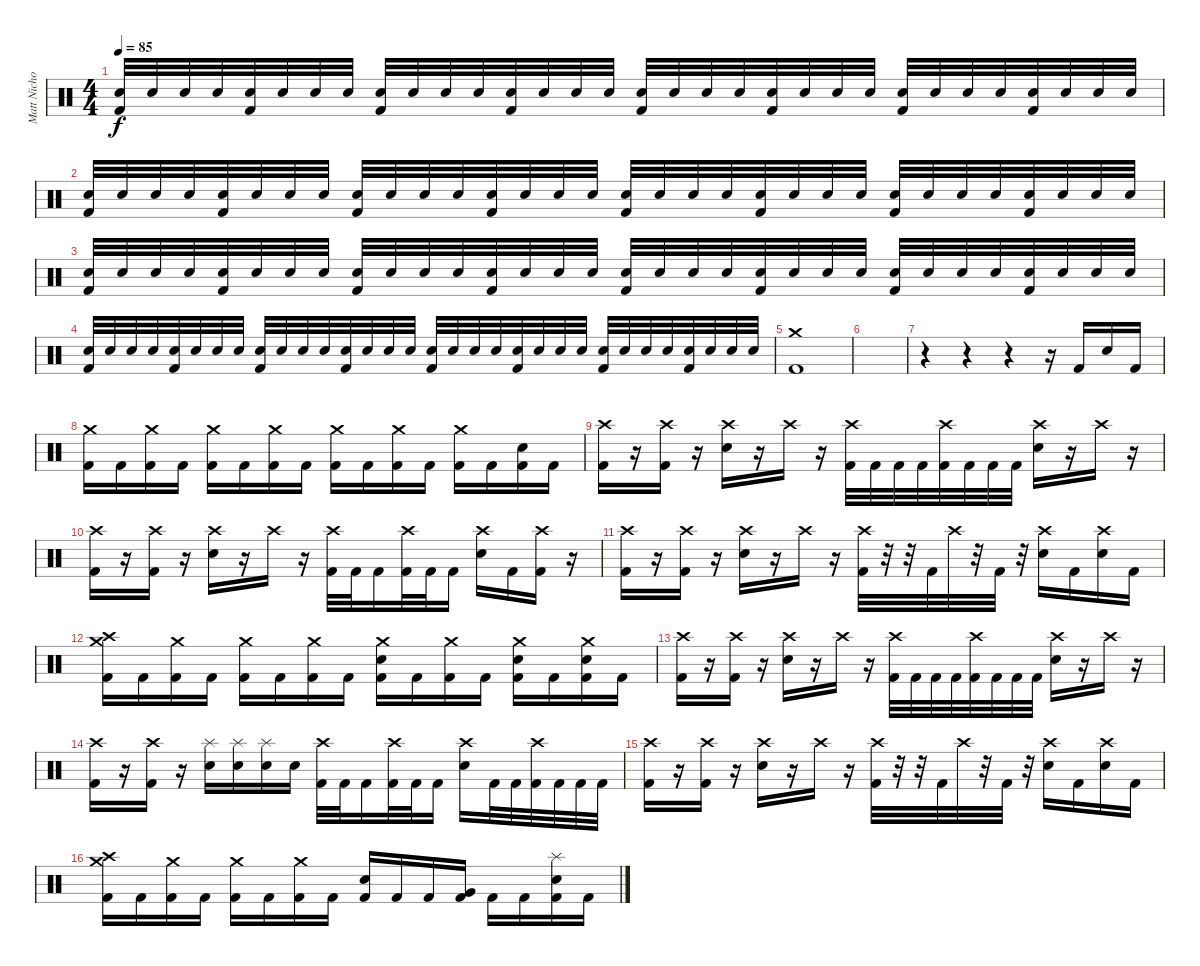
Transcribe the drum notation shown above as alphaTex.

\track ("Matt Nichols" "Matt Nicho") {instrument percussion}
\staff {score}
\articulation defaults
\ts (4 4)
\tempo 85
\clef neutral
\ks c
("Electric Snare (hit)" "Kick (hit) 2").32{dy f} "Electric Snare (hit)".32 "Electric Snare (hit)".32 "Electric Snare (hit)".32 ("Electric Snare (hit)" "Kick (hit) 2").32 "Electric Snare (hit)".32 "Electric Snare (hit)".32 "Electric Snare (hit)".32 ("Electric Snare (hit)" "Kick (hit) 2").32 "Electric Snare (hit)".32 "Electric Snare (hit)".32 "Electric Snare (hit)".32 ("Electric Snare (hit)" "Kick (hit) 2").32 "Electric Snare (hit)".32 "Electric Snare (hit)".32 "Electric Snare (hit)".32 ("Electric Snare (hit)" "Kick (hit) 2").32 "Electric Snare (hit)".32 "Electric Snare (hit)".32 "Electric Snare (hit)".32 ("Electric Snare (hit)" "Kick (hit) 2").32 "Electric Snare (hit)".32 "Electric Snare (hit)".32 "Electric Snare (hit)".32 ("Electric Snare (hit)" "Kick (hit) 2").32 "Electric Snare (hit)".32 "Electric Snare (hit)".32 "Electric Snare (hit)".32 ("Electric Snare (hit)" "Kick (hit) 2").32 "Electric Snare (hit)".32 "Electric Snare (hit)".32 "Electric Snare (hit)".32 |
("Electric Snare (hit)" "Kick (hit) 2").32 "Electric Snare (hit)".32 "Electric Snare (hit)".32 "Electric Snare (hit)".32 ("Electric Snare (hit)" "Kick (hit) 2").32 "Electric Snare (hit)".32 "Electric Snare (hit)".32 "Electric Snare (hit)".32 ("Electric Snare (hit)" "Kick (hit) 2").32 "Electric Snare (hit)".32 "Electric Snare (hit)".32 "Electric Snare (hit)".32 ("Electric Snare (hit)" "Kick (hit) 2").32 "Electric Snare (hit)".32 "Electric Snare (hit)".32 "Electric Snare (hit)".32 ("Electric Snare (hit)" "Kick (hit) 2").32 "Electric Snare (hit)".32 "Electric Snare (hit)".32 "Electric Snare (hit)".32 ("Electric Snare (hit)" "Kick (hit) 2").32 "Electric Snare (hit)".32 "Electric Snare (hit)".32 "Electric Snare (hit)".32 ("Electric Snare (hit)" "Kick (hit) 2").32 "Electric Snare (hit)".32 "Electric Snare (hit)".32 "Electric Snare (hit)".32 ("Electric Snare (hit)" "Kick (hit) 2").32 "Electric Snare (hit)".32 "Electric Snare (hit)".32 "Electric Snare (hit)".32 |
("Electric Snare (hit)" "Kick (hit) 2").32 "Electric Snare (hit)".32 "Electric Snare (hit)".32 "Electric Snare (hit)".32 ("Electric Snare (hit)" "Kick (hit) 2").32 "Electric Snare (hit)".32 "Electric Snare (hit)".32 "Electric Snare (hit)".32 ("Electric Snare (hit)" "Kick (hit) 2").32 "Electric Snare (hit)".32 "Electric Snare (hit)".32 "Electric Snare (hit)".32 ("Electric Snare (hit)" "Kick (hit) 2").32 "Electric Snare (hit)".32 "Electric Snare (hit)".32 "Electric Snare (hit)".32 ("Electric Snare (hit)" "Kick (hit) 2").32 "Electric Snare (hit)".32 "Electric Snare (hit)".32 "Electric Snare (hit)".32 ("Electric Snare (hit)" "Kick (hit) 2").32 "Electric Snare (hit)".32 "Electric Snare (hit)".32 "Electric Snare (hit)".32 ("Electric Snare (hit)" "Kick (hit) 2").32 "Electric Snare (hit)".32 "Electric Snare (hit)".32 "Electric Snare (hit)".32 ("Electric Snare (hit)" "Kick (hit) 2").32 "Electric Snare (hit)".32 "Electric Snare (hit)".32 "Electric Snare (hit)".32 |
("Electric Snare (hit)" "Kick (hit) 2").32 "Electric Snare (hit)".32 "Electric Snare (hit)".32 "Electric Snare (hit)".32 ("Electric Snare (hit)" "Kick (hit) 2").32 "Electric Snare (hit)".32 "Electric Snare (hit)".32 "Electric Snare (hit)".32 ("Electric Snare (hit)" "Kick (hit) 2").32 "Electric Snare (hit)".32 "Electric Snare (hit)".32 "Electric Snare (hit)".32 ("Electric Snare (hit)" "Kick (hit) 2").32 "Electric Snare (hit)".32 "Electric Snare (hit)".32 "Electric Snare (hit)".32 ("Electric Snare (hit)" "Kick (hit) 2").32 "Electric Snare (hit)".32 "Electric Snare (hit)".32 "Electric Snare (hit)".32 ("Electric Snare (hit)" "Kick (hit) 2").32 "Electric Snare (hit)".32 "Electric Snare (hit)".32 "Electric Snare (hit)".32 ("Electric Snare (hit)" "Kick (hit) 2").32 "Electric Snare (hit)".32 "Electric Snare (hit)".32 "Electric Snare (hit)".32 ("Electric Snare (hit)" "Kick (hit) 2").32 "Electric Snare (hit)".32 "Electric Snare (hit)".32 "Electric Snare (hit)".32 |
("Crash medium (hit)" "Kick (hit) 2").1 |
|
r.4 r.4 r.4 r.16 "Kick (hit) 2".16 "Electric Snare (hit)".16 "Kick (hit) 2".16 |
("Crash medium (hit)" "Kick (hit) 2").16 "Kick (hit) 2".16 ("Crash medium (hit)" "Kick (hit) 2").16 "Kick (hit) 2".16 ("Crash medium (hit)" "Kick (hit) 2").16 "Kick (hit) 2".16 ("Crash medium (hit)" "Kick (hit) 2").16 "Kick (hit) 2".16 ("Crash medium (hit)" "Kick (hit) 2").16 "Kick (hit) 2".16 ("Crash medium (hit)" "Kick (hit) 2").16 "Kick (hit) 2".16 ("Crash medium (hit)" "Kick (hit) 2").16 "Kick (hit) 2".16 ("Electric Snare (hit)" "Kick (hit) 2").16 "Kick (hit) 2".16 |
("Crash high (hit)" "Kick (hit) 2").16 r.16 ("Crash high (hit)" "Kick (hit) 2").16 r.16 ("Crash high (hit)" "Electric Snare (hit)").16 r.16 "Crash high (hit)".16 r.16 ("Crash high (hit)" "Kick (hit) 2").32 "Kick (hit) 2".32 "Kick (hit) 2".32 "Kick (hit) 2".32 ("Crash high (hit)" "Kick (hit) 2").32 "Kick (hit) 2".32 "Kick (hit) 2".32 "Kick (hit) 2".32 ("Crash high (hit)" "Electric Snare (hit)").16 r.16 "Crash high (hit)".16 r.16 |
("Crash high (hit)" "Kick (hit) 2").16 r.16 ("Crash high (hit)" "Kick (hit) 2").16 r.16 ("Crash high (hit)" "Electric Snare (hit)").16 r.16 "Crash high (hit)".16 r.16 ("Crash high (hit)" "Kick (hit) 2").32 "Kick (hit) 2".32 "Kick (hit) 2".16 ("Crash high (hit)" "Kick (hit) 2").32 "Kick (hit) 2".32 "Kick (hit) 2".16 ("Crash high (hit)" "Electric Snare (hit)").16 "Kick (hit) 2".16 ("Crash high (hit)" "Kick (hit) 2").16 r.16 |
("Crash high (hit)" "Kick (hit) 2").16 r.16 ("Crash high (hit)" "Kick (hit) 2").16 r.16 ("Crash high (hit)" "Electric Snare (hit)").16 r.16 "Crash high (hit)".16 r.16 ("Crash high (hit)" "Kick (hit) 2").32 r.32 r.32 "Kick (hit) 2".32 "Crash high (hit)".32 r.32 "Kick (hit) 2".32 r.32 ("Crash high (hit)" "Electric Snare (hit)").16 "Kick (hit) 2".16 ("Crash high (hit)" "Electric Snare (hit)").16 "Kick (hit) 2".16 |
("Crash high (hit)" "Crash medium (hit)" "Kick (hit) 2").16 "Kick (hit) 2".16 ("Crash medium (hit)" "Kick (hit) 2").16 "Kick (hit) 2".16 ("Crash medium (hit)" "Kick (hit) 2").16 "Kick (hit) 2".16 ("Crash medium (hit)" "Kick (hit) 2").16 "Kick (hit) 2".16 ("Crash medium (hit)" "Electric Snare (hit)" "Kick (hit) 2").16 "Kick (hit) 2".16 ("Crash medium (hit)" "Kick (hit) 2").16 "Kick (hit) 2".16 ("Crash medium (hit)" "Electric Snare (hit)" "Kick (hit) 2").16 "Kick (hit) 2".16 ("Crash medium (hit)" "Electric Snare (hit)" "Kick (hit) 2").16 "Kick (hit) 2".16 |
("Crash high (hit)" "Kick (hit) 2").16 r.16 ("Crash high (hit)" "Kick (hit) 2").16 r.16 ("Crash high (hit)" "Electric Snare (hit)").16 r.16 "Crash high (hit)".16 r.16 ("Crash high (hit)" "Kick (hit) 2").32 "Kick (hit) 2".32 "Kick (hit) 2".32 "Kick (hit) 2".32 ("Crash high (hit)" "Kick (hit) 2").32 "Kick (hit) 2".32 "Kick (hit) 2".32 "Kick (hit) 2".32 ("Crash high (hit)" "Electric Snare (hit)").16 r.16 "Crash high (hit)".16 r.16 |
("Crash high (hit)" "Kick (hit) 2").16 r.16 ("Crash high (hit)" "Kick (hit) 2").16 r.16 ("Splash (hit)" "Electric Snare (hit)").16 ("Splash (hit)" "Electric Snare (hit)").16 ("Splash (hit)" "Electric Snare (hit)").16 "Electric Snare (hit)".16 ("Crash high (hit)" "Kick (hit) 2").32 "Kick (hit) 2".32 "Kick (hit) 2".16 ("Crash high (hit)" "Kick (hit) 2").32 "Kick (hit) 2".32 "Kick (hit) 2".16 ("Crash high (hit)" "Electric Snare (hit)").16 "Kick (hit) 2".32 "Kick (hit) 2".32 ("Crash high (hit)" "Kick (hit) 2").32 "Kick (hit) 2".32 "Kick (hit) 2".32 "Kick (hit) 2".32 |
("Crash high (hit)" "Kick (hit) 2").16 r.16 ("Crash high (hit)" "Kick (hit) 2").16 r.16 ("Crash high (hit)" "Electric Snare (hit)").16 r.16 "Crash high (hit)".16 r.16 ("Crash high (hit)" "Kick (hit) 2").32 r.32 r.32 "Kick (hit) 2".32 "Crash high (hit)".32 r.32 "Kick (hit) 2".32 r.32 ("Crash high (hit)" "Electric Snare (hit)").16 "Kick (hit) 2".16 ("Crash high (hit)" "Electric Snare (hit)").16 "Kick (hit) 2".16 |
("Crash high (hit)" "Crash medium (hit)" "Kick (hit) 2").16 "Kick (hit) 2".16 ("Crash medium (hit)" "Kick (hit) 2").16 "Kick (hit) 2".16 ("Crash medium (hit)" "Kick (hit) 2").16 "Kick (hit) 2".16 ("Crash medium (hit)" "Kick (hit) 2").16 "Kick (hit) 2".16 ("Electric Snare (hit)" "Kick (hit) 2").16 "Kick (hit) 2".16 "Kick (hit) 2".16 ("Very Low Tom (hit)" "Kick (hit) 2").16 "Kick (hit) 2".16 "Kick (hit) 2".16 ("Splash (hit)" "Electric Snare (hit)" "Kick (hit) 2").16 "Kick (hit) 2".16
